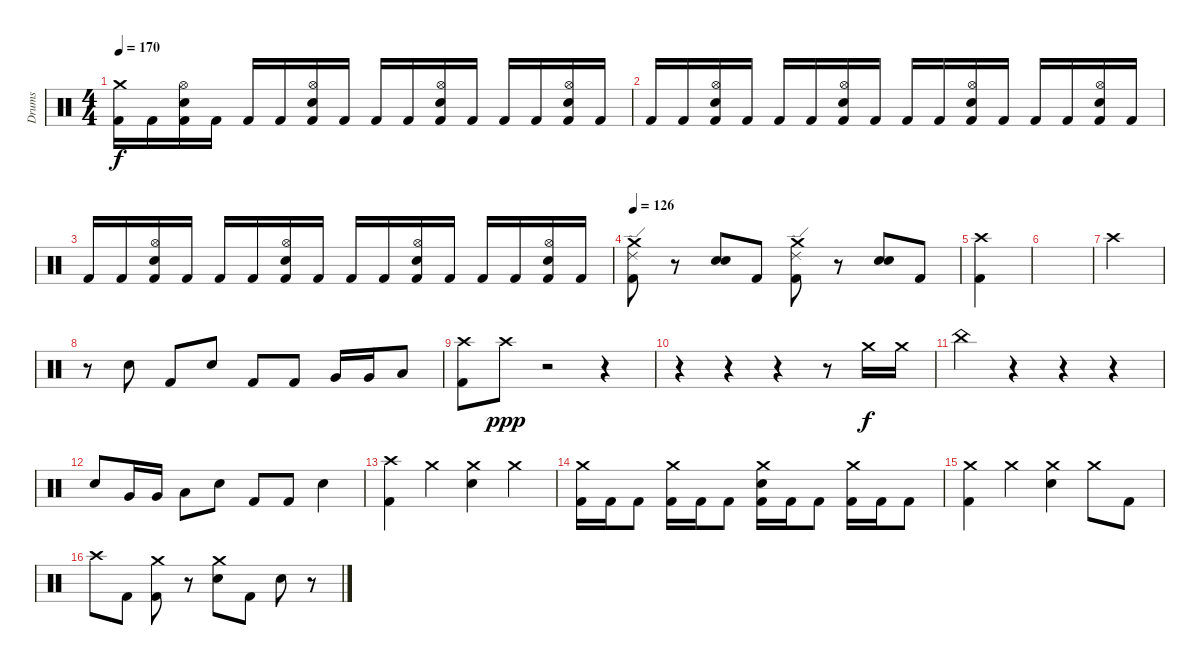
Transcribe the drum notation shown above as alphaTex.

\track ("Drums" "Drums") {instrument percussion}
\staff
\articulation defaults
\ts (4 4)
\tempo 170
\clef neutral
\ks c
("Crash medium (hit)" "Kick (hit) 2").16{dy f} "Kick (hit) 2".16 ("Hi-Hat (open)" "Electric Snare (hit)" "Kick (hit) 2").16 "Kick (hit) 2".16 "Kick (hit) 2".16 "Kick (hit) 2".16 ("Hi-Hat (open)" "Electric Snare (hit)" "Kick (hit) 2").16 "Kick (hit) 2".16 "Kick (hit) 2".16 "Kick (hit) 2".16 ("Hi-Hat (open)" "Electric Snare (hit)" "Kick (hit) 2").16 "Kick (hit) 2".16 "Kick (hit) 2".16 "Kick (hit) 2".16 ("Hi-Hat (open)" "Electric Snare (hit)" "Kick (hit) 2").16 "Kick (hit) 2".16 |
"Kick (hit) 2".16 "Kick (hit) 2".16 ("Hi-Hat (open)" "Electric Snare (hit)" "Kick (hit) 2").16 "Kick (hit) 2".16 "Kick (hit) 2".16 "Kick (hit) 2".16 ("Hi-Hat (open)" "Electric Snare (hit)" "Kick (hit) 2").16 "Kick (hit) 2".16 "Kick (hit) 2".16 "Kick (hit) 2".16 ("Hi-Hat (open)" "Electric Snare (hit)" "Kick (hit) 2").16 "Kick (hit) 2".16 "Kick (hit) 2".16 "Kick (hit) 2".16 ("Hi-Hat (open)" "Electric Snare (hit)" "Kick (hit) 2").16 "Kick (hit) 2".16 |
"Kick (hit) 2".16 "Kick (hit) 2".16 ("Hi-Hat (open)" "Electric Snare (hit)" "Kick (hit) 2").16 "Kick (hit) 2".16 "Kick (hit) 2".16 "Kick (hit) 2".16 ("Hi-Hat (open)" "Electric Snare (hit)" "Kick (hit) 2").16 "Kick (hit) 2".16 "Kick (hit) 2".16 "Kick (hit) 2".16 ("Hi-Hat (open)" "Electric Snare (hit)" "Kick (hit) 2").16 "Kick (hit) 2".16 "Kick (hit) 2".16 "Kick (hit) 2".16 ("Hi-Hat (open)" "Electric Snare (hit)" "Kick (hit) 2").16 "Kick (hit) 2".16 |
\tempo 126
("Crash medium (hit)" "Ride (edge) 2" "Kick (hit) 2").8 r.8 ("Electric Snare (hit)" "Electric Snare (hit)").8{bd 60} "Kick (hit) 2".8 ("Crash medium (hit)" "Ride (edge) 2" "Kick (hit) 2").8 r.8 ("Electric Snare (hit)" "Electric Snare (hit)").8{bd 60} "Kick (hit) 2".8 |
("Crash high (hit)" "Kick (hit) 2").4 |
|
"Crash high (hit)".4 |
r.8 "Electric Snare (hit)".8 "Kick (hit) 2".8 "Electric Snare (hit)".8 "Kick (hit) 2".8 "Kick (hit) 2".8 "Very Low Tom (hit)".16 "Very Low Tom (hit)".16 "Low Floor Tom (hit)".8 |
("Crash high (hit)" "Kick (hit) 2").8 "Crash high (hit)".8{dy ppp} r.2 r.4 |
r.4 r.4 r.4 r.8 "Crash medium (hit)".16{dy f} "Crash medium (hit)".16 |
"China (hit)".4 r.4 r.4 r.4 |
"Electric Snare (hit)".8 "Very Low Tom (hit)".16 "Very Low Tom (hit)".16 "Low Floor Tom (hit)".8 "Electric Snare (hit)".8 "Kick (hit) 2".8 "Kick (hit) 2".8 "Electric Snare (hit)".4 |
("Crash high (hit)" "Kick (hit) 2").4 "Crash medium (hit)".4 ("Crash medium (hit)" "Electric Snare (hit)").4 "Crash medium (hit)".4 |
("Crash medium (hit)" "Kick (hit) 2").16 "Kick (hit) 2".16 "Kick (hit) 2".8 ("Crash medium (hit)" "Kick (hit) 2").16 "Kick (hit) 2".16 "Kick (hit) 2".8 ("Crash medium (hit)" "Electric Snare (hit)" "Kick (hit) 2").16 "Kick (hit) 2".16 "Kick (hit) 2".8 ("Crash medium (hit)" "Kick (hit) 2").16 "Kick (hit) 2".16 "Kick (hit) 2".8 |
("Crash medium (hit)" "Kick (hit) 2").4 "Crash medium (hit)".4 ("Crash medium (hit)" "Electric Snare (hit)").4 "Crash medium (hit)".8 "Kick (hit) 2".8 |
"Crash high (hit)".8 "Kick (hit) 2".8 ("Crash medium (hit)" "Kick (hit) 2").8 r.8 ("Crash medium (hit)" "Electric Snare (hit)").8 "Kick (hit) 2".8 "Electric Snare (hit)".8 r.8
